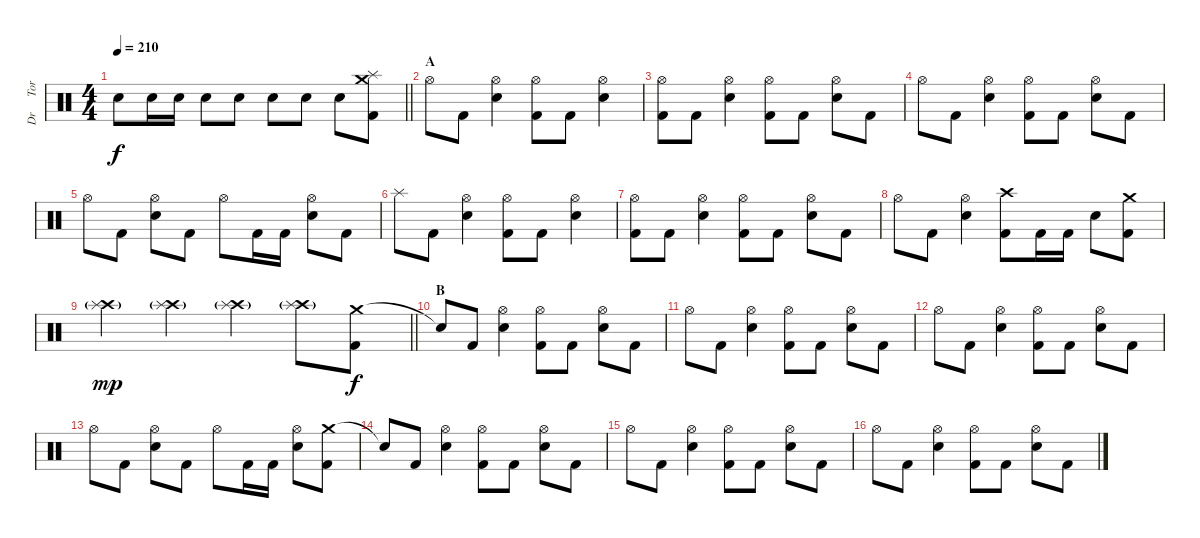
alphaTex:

\track ("Dr     Tora" "Dr     Tor") {instrument percussion}
\staff {score}
\articulation defaults
\ts (4 4)
\tempo 210
\clef neutral
\barLineRight lightlight
\ks c "Snare (hit)"{t}.8{dy f} "Electric Snare (hit)".16 "Electric Snare (hit)".16 "Electric Snare (hit)".8 "Electric Snare (hit)".8 "Electric Snare (hit)".8 "Electric Snare (hit)".8 "Electric Snare (hit)".8
("Crash medium (hit)" "Splash (hit)" "Kick (hit) 2").8 |
\section ("" "A")
"Hi-Hat (open)".8 "Kick (hit) 2".8 ("Hi-Hat (open)" "Electric Snare (hit)").4 ("Hi-Hat (open)" "Kick (hit) 2").8 "Kick (hit) 2".8 ("Hi-Hat (open)" "Electric Snare (hit)").4 |
("Hi-Hat (open)" "Kick (hit) 2").8 "Kick (hit) 2".8 ("Hi-Hat (open)" "Electric Snare (hit)").4 ("Hi-Hat (open)" "Kick (hit) 2").8 "Kick (hit) 2".8 ("Hi-Hat (open)" "Electric Snare (hit)").8 "Kick (hit) 2".8 |
"Hi-Hat (open)".8 "Kick (hit) 2".8 ("Hi-Hat (open)" "Electric Snare (hit)").4 ("Hi-Hat (open)" "Kick (hit) 2").8 "Kick (hit) 2".8 ("Hi-Hat (open)" "Electric Snare (hit)").8 "Kick (hit) 2".8 |
"Hi-Hat (open)".8 "Kick (hit) 2".8 ("Hi-Hat (open)" "Electric Snare (hit)").8 "Kick (hit) 2".8 "Hi-Hat (open)".8 "Kick (hit) 2".16 "Kick (hit) 2".16 ("Hi-Hat (open)" "Electric Snare (hit)").8 "Kick (hit) 2".8 |
"Splash (hit)".8 "Kick (hit) 2".8 ("Hi-Hat (open)" "Electric Snare (hit)").4 ("Hi-Hat (open)" "Kick (hit) 2").8 "Kick (hit) 2".8 ("Hi-Hat (open)" "Electric Snare (hit)").4 |
("Hi-Hat (open)" "Kick (hit) 2").8 "Kick (hit) 2".8 ("Hi-Hat (open)" "Electric Snare (hit)").4 ("Hi-Hat (open)" "Kick (hit) 2").8 "Kick (hit) 2".8 ("Hi-Hat (open)" "Electric Snare (hit)").8 "Kick (hit) 2".8 |
"Hi-Hat (open)".8 "Kick (hit) 2".8 ("Hi-Hat (open)" "Electric Snare (hit)").4 ("Crash high (hit)" "Kick (hit) 2").8 "Kick (hit) 2".16 "Kick (hit) 2".16 "Electric Snare (hit)".8 ("Crash medium (hit)" "Kick (hit) 2").8 |
\barLineRight lightlight
("Crash high (hit)"{g} "Splash (hit)").4{dy mp} ("Crash high (hit)"{g} "Splash (hit)").4 ("Crash high (hit)"{g} "Splash (hit)").4 ("Crash high (hit)"{g} "Splash (hit)").8 ("Crash medium (hit)" "Kick (hit) 2").8{dy f} |
\section ("" "B")
"Snare (hit)"{t}.8 "Kick (hit) 2".8 ("Hi-Hat (open)" "Electric Snare (hit)").4 ("Hi-Hat (open)" "Kick (hit) 2").8 "Kick (hit) 2".8 ("Hi-Hat (open)" "Electric Snare (hit)").8 "Kick (hit) 2".8 |
"Hi-Hat (open)".8 "Kick (hit) 2".8 ("Hi-Hat (open)" "Electric Snare (hit)").4 ("Hi-Hat (open)" "Kick (hit) 2").8 "Kick (hit) 2".8 ("Hi-Hat (open)" "Electric Snare (hit)").8 "Kick (hit) 2".8 |
"Hi-Hat (open)".8 "Kick (hit) 2".8 ("Hi-Hat (open)" "Electric Snare (hit)").4 ("Hi-Hat (open)" "Kick (hit) 2").8 "Kick (hit) 2".8 ("Hi-Hat (open)" "Electric Snare (hit)").8 "Kick (hit) 2".8 |
"Hi-Hat (open)".8 "Kick (hit) 2".8 ("Hi-Hat (open)" "Electric Snare (hit)").8 "Kick (hit) 2".8 "Hi-Hat (open)".8 "Kick (hit) 2".16 "Kick (hit) 2".16 ("Hi-Hat (open)" "Electric Snare (hit)").8 ("Crash medium (hit)" "Kick (hit) 2").8 |
"Snare (hit)"{t}.8 "Kick (hit) 2".8 ("Hi-Hat (open)" "Electric Snare (hit)").4 ("Hi-Hat (open)" "Kick (hit) 2").8 "Kick (hit) 2".8 ("Hi-Hat (open)" "Electric Snare (hit)").8 "Kick (hit) 2".8 |
"Hi-Hat (open)".8 "Kick (hit) 2".8 ("Hi-Hat (open)" "Electric Snare (hit)").4 ("Hi-Hat (open)" "Kick (hit) 2").8 "Kick (hit) 2".8 ("Hi-Hat (open)" "Electric Snare (hit)").8 "Kick (hit) 2".8 |
"Hi-Hat (open)".8 "Kick (hit) 2".8 ("Hi-Hat (open)" "Electric Snare (hit)").4 ("Hi-Hat (open)" "Kick (hit) 2").8 "Kick (hit) 2".8 ("Hi-Hat (open)" "Electric Snare (hit)").8 "Kick (hit) 2".8
